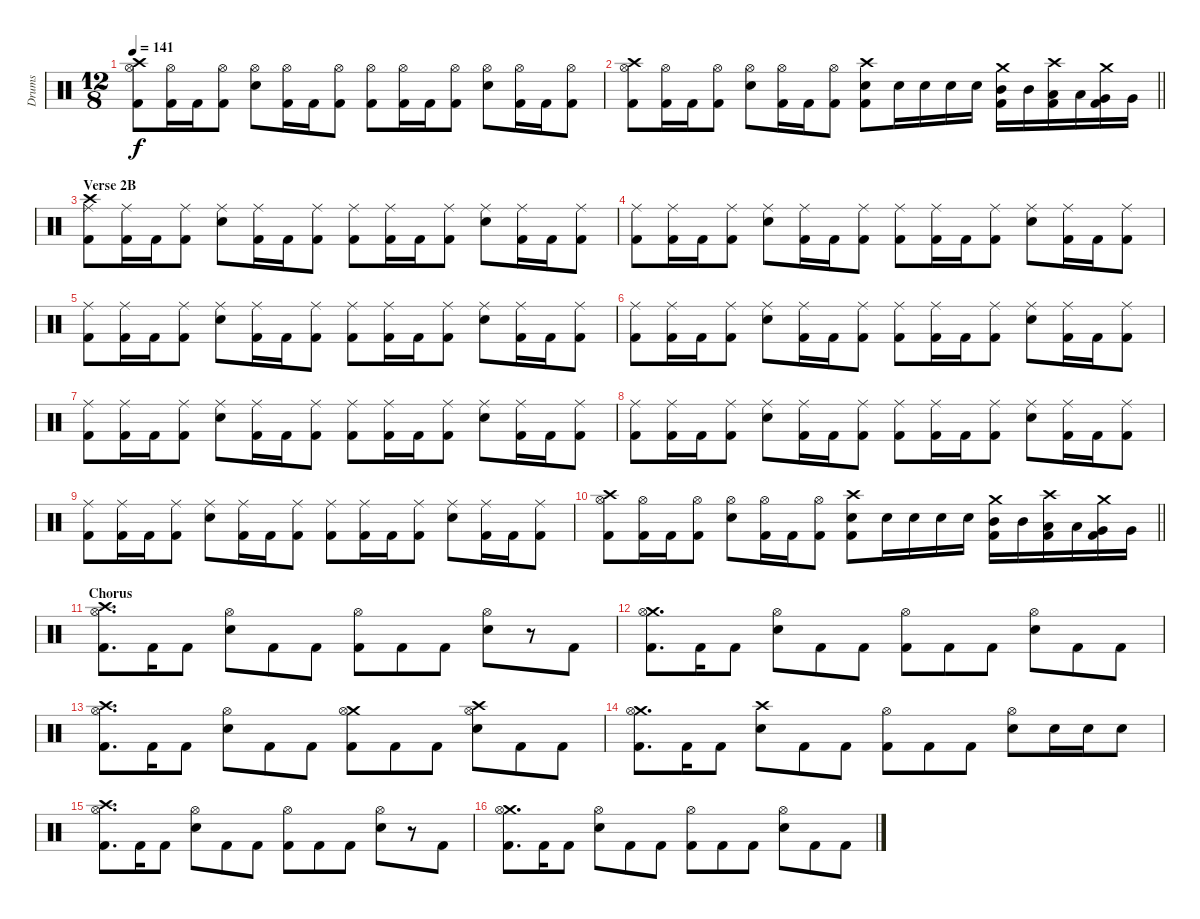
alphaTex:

\track ("Drums" "Drums") {instrument percussion}
\staff {score}
\articulation defaults
\ts (12 8)
\tempo 141
\clef neutral
\ks c
("Crash high (hit)" "Hi-Hat (open)" "Kick (hit) 2").8{dy f} ("Hi-Hat (open)" "Kick (hit) 2").16 "Kick (hit) 2".16 ("Hi-Hat (open)" "Kick (hit) 2").8 ("Hi-Hat (open)" "Snare (hit) 2").8 ("Hi-Hat (open)" "Kick (hit) 2").16 "Kick (hit) 2".16 ("Hi-Hat (open)" "Kick (hit) 2").8 ("Hi-Hat (open)" "Kick (hit) 2").8 ("Hi-Hat (open)" "Kick (hit) 2").16 "Kick (hit) 2".16 ("Hi-Hat (open)" "Kick (hit) 2").8 ("Hi-Hat (open)" "Snare (hit) 2").8 ("Hi-Hat (open)" "Kick (hit) 2").16 "Kick (hit) 2".16 ("Hi-Hat (open)" "Kick (hit) 2").8 |
\barLineRight lightlight
("Crash high (hit)" "Hi-Hat (open)" "Kick (hit) 2").8 ("Hi-Hat (open)" "Kick (hit) 2").16 "Kick (hit) 2".16 ("Hi-Hat (open)" "Kick (hit) 2").8 ("Hi-Hat (open)" "Snare (hit) 2").8 ("Hi-Hat (open)" "Kick (hit) 2").16 "Kick (hit) 2".16 ("Hi-Hat (open)" "Kick (hit) 2").8 ("Crash high (hit)" "Snare (hit) 2" "Kick (hit) 2").8 "Snare (hit) 2".16 "Snare (hit) 2".16 "Snare (hit) 2".16 "Snare (hit) 2".16 ("Crash medium (hit)" "Mid Tom (hit)" "Kick (hit) 2").16 "Mid Tom (hit)".16 ("Crash high (hit)" "Low Tom (hit)" "Kick (hit) 2").16 "Low Tom (hit)".16 ("Crash medium (hit)" "Very Low Tom (hit)" "Kick (hit) 2").16 "Very Low Tom (hit)".16 |
\section ("" "Verse 2B")
("Crash high (hit)" "Ride (middle)" "Kick (hit) 2").8 ("Ride (middle)" "Kick (hit) 2").16 "Kick (hit) 2".16 ("Ride (middle)" "Kick (hit) 2").8 ("Ride (middle)" "Snare (hit) 2").8 ("Ride (middle)" "Kick (hit) 2").16 "Kick (hit) 2".16 ("Ride (middle)" "Kick (hit) 2").8 ("Ride (middle)" "Kick (hit) 2").8 ("Ride (middle)" "Kick (hit) 2").16 "Kick (hit) 2".16 ("Ride (middle)" "Kick (hit) 2").8 ("Ride (middle)" "Snare (hit) 2").8 ("Ride (middle)" "Kick (hit) 2").16 "Kick (hit) 2".16 ("Ride (middle)" "Kick (hit) 2").8 |
("Ride (middle)" "Kick (hit) 2").8 ("Ride (middle)" "Kick (hit) 2").16 "Kick (hit) 2".16 ("Ride (middle)" "Kick (hit) 2").8 ("Ride (middle)" "Snare (hit) 2").8 ("Ride (middle)" "Kick (hit) 2").16 "Kick (hit) 2".16 ("Ride (middle)" "Kick (hit) 2").8 ("Ride (middle)" "Kick (hit) 2").8 ("Ride (middle)" "Kick (hit) 2").16 "Kick (hit) 2".16 ("Ride (middle)" "Kick (hit) 2").8 ("Ride (middle)" "Snare (hit) 2").8 ("Ride (middle)" "Kick (hit) 2").16 "Kick (hit) 2".16 ("Ride (middle)" "Kick (hit) 2").8 |
("Ride (middle)" "Kick (hit) 2").8 ("Ride (middle)" "Kick (hit) 2").16 "Kick (hit) 2".16 ("Ride (middle)" "Kick (hit) 2").8 ("Ride (middle)" "Snare (hit) 2").8 ("Ride (middle)" "Kick (hit) 2").16 "Kick (hit) 2".16 ("Ride (middle)" "Kick (hit) 2").8 ("Ride (middle)" "Kick (hit) 2").8 ("Ride (middle)" "Kick (hit) 2").16 "Kick (hit) 2".16 ("Ride (middle)" "Kick (hit) 2").8 ("Ride (middle)" "Snare (hit) 2").8 ("Ride (middle)" "Kick (hit) 2").16 "Kick (hit) 2".16 ("Ride (middle)" "Kick (hit) 2").8 |
("Ride (middle)" "Kick (hit) 2").8 ("Ride (middle)" "Kick (hit) 2").16 "Kick (hit) 2".16 ("Ride (middle)" "Kick (hit) 2").8 ("Ride (middle)" "Snare (hit) 2").8 ("Ride (middle)" "Kick (hit) 2").16 "Kick (hit) 2".16 ("Ride (middle)" "Kick (hit) 2").8 ("Ride (middle)" "Kick (hit) 2").8 ("Ride (middle)" "Kick (hit) 2").16 "Kick (hit) 2".16 ("Ride (middle)" "Kick (hit) 2").8 ("Ride (middle)" "Snare (hit) 2").8 ("Ride (middle)" "Kick (hit) 2").16 "Kick (hit) 2".16 ("Ride (middle)" "Kick (hit) 2").8 |
("Ride (middle)" "Kick (hit) 2").8 ("Ride (middle)" "Kick (hit) 2").16 "Kick (hit) 2".16 ("Ride (middle)" "Kick (hit) 2").8 ("Ride (middle)" "Snare (hit) 2").8 ("Ride (middle)" "Kick (hit) 2").16 "Kick (hit) 2".16 ("Ride (middle)" "Kick (hit) 2").8 ("Ride (middle)" "Kick (hit) 2").8 ("Ride (middle)" "Kick (hit) 2").16 "Kick (hit) 2".16 ("Ride (middle)" "Kick (hit) 2").8 ("Ride (middle)" "Snare (hit) 2").8 ("Ride (middle)" "Kick (hit) 2").16 "Kick (hit) 2".16 ("Ride (middle)" "Kick (hit) 2").8 |
("Ride (middle)" "Kick (hit) 2").8 ("Ride (middle)" "Kick (hit) 2").16 "Kick (hit) 2".16 ("Ride (middle)" "Kick (hit) 2").8 ("Ride (middle)" "Snare (hit) 2").8 ("Ride (middle)" "Kick (hit) 2").16 "Kick (hit) 2".16 ("Ride (middle)" "Kick (hit) 2").8 ("Ride (middle)" "Kick (hit) 2").8 ("Ride (middle)" "Kick (hit) 2").16 "Kick (hit) 2".16 ("Ride (middle)" "Kick (hit) 2").8 ("Ride (middle)" "Snare (hit) 2").8 ("Ride (middle)" "Kick (hit) 2").16 "Kick (hit) 2".16 ("Ride (middle)" "Kick (hit) 2").8 |
("Ride (middle)" "Kick (hit) 2").8 ("Ride (middle)" "Kick (hit) 2").16 "Kick (hit) 2".16 ("Ride (middle)" "Kick (hit) 2").8 ("Ride (middle)" "Snare (hit) 2").8 ("Ride (middle)" "Kick (hit) 2").16 "Kick (hit) 2".16 ("Ride (middle)" "Kick (hit) 2").8 ("Ride (middle)" "Kick (hit) 2").8 ("Ride (middle)" "Kick (hit) 2").16 "Kick (hit) 2".16 ("Ride (middle)" "Kick (hit) 2").8 ("Ride (middle)" "Snare (hit) 2").8 ("Ride (middle)" "Kick (hit) 2").16 "Kick (hit) 2".16 ("Ride (middle)" "Kick (hit) 2").8 |
\barLineRight lightlight
("Crash high (hit)" "Hi-Hat (open)" "Kick (hit) 2").8 ("Hi-Hat (open)" "Kick (hit) 2").16 "Kick (hit) 2".16 ("Hi-Hat (open)" "Kick (hit) 2").8 ("Hi-Hat (open)" "Snare (hit) 2").8 ("Hi-Hat (open)" "Kick (hit) 2").16 "Kick (hit) 2".16 ("Hi-Hat (open)" "Kick (hit) 2").8 ("Crash high (hit)" "Snare (hit) 2" "Kick (hit) 2").8 "Snare (hit) 2".16 "Snare (hit) 2".16 "Snare (hit) 2".16 "Snare (hit) 2".16 ("Crash medium (hit)" "Mid Tom (hit)" "Kick (hit) 2").16 "Mid Tom (hit)".16 ("Crash high (hit)" "Low Tom (hit)" "Kick (hit) 2").16 "Low Tom (hit)".16 ("Crash medium (hit)" "Very Low Tom (hit)" "Kick (hit) 2").16 "Very Low Tom (hit)".16 |
\section ("" "Chorus")
("Crash high (hit)" "Hi-Hat (open)" "Kick (hit) 2").8{d} "Kick (hit) 2".16 "Kick (hit) 2".8 ("Hi-Hat (open)" "Snare (hit) 2").8 "Kick (hit) 2".8 "Kick (hit) 2".8 ("Hi-Hat (open)" "Kick (hit) 2").8 "Kick (hit) 2".8 "Kick (hit) 2".8 ("Hi-Hat (open)" "Snare (hit) 2").8 r.8 "Kick (hit) 2".8 |
("Crash medium (hit)" "Hi-Hat (open)" "Kick (hit) 2").8{d} "Kick (hit) 2".16 "Kick (hit) 2".8 ("Hi-Hat (open)" "Snare (hit) 2").8 "Kick (hit) 2".8 "Kick (hit) 2".8 ("Hi-Hat (open)" "Kick (hit) 2").8 "Kick (hit) 2".8 "Kick (hit) 2".8 ("Hi-Hat (open)" "Snare (hit) 2").8 "Kick (hit) 2".8 "Kick (hit) 2".8 |
("Crash high (hit)" "Hi-Hat (open)" "Kick (hit) 2").8{d} "Kick (hit) 2".16 "Kick (hit) 2".8 ("Hi-Hat (open)" "Snare (hit) 2").8 "Kick (hit) 2".8 "Kick (hit) 2".8 ("Crash medium (hit)" "Hi-Hat (open)" "Kick (hit) 2").8 "Kick (hit) 2".8 "Kick (hit) 2".8 ("Crash high (hit)" "Hi-Hat (open)" "Snare (hit) 2").8 "Kick (hit) 2".8 "Kick (hit) 2".8 |
("Crash medium (hit)" "Hi-Hat (open)" "Kick (hit) 2").8{d} "Kick (hit) 2".16 "Kick (hit) 2".8 ("Crash high (hit)" "Snare (hit) 2").8 "Kick (hit) 2".8 "Kick (hit) 2".8 ("Hi-Hat (open)" "Kick (hit) 2").8 "Kick (hit) 2".8 "Kick (hit) 2".8 ("Hi-Hat (open)" "Snare (hit) 2").8 "Snare (hit) 2".16 "Snare (hit) 2".16 "Snare (hit) 2".8 |
("Crash high (hit)" "Hi-Hat (open)" "Kick (hit) 2").8{d} "Kick (hit) 2".16 "Kick (hit) 2".8 ("Hi-Hat (open)" "Snare (hit) 2").8 "Kick (hit) 2".8 "Kick (hit) 2".8 ("Hi-Hat (open)" "Kick (hit) 2").8 "Kick (hit) 2".8 "Kick (hit) 2".8 ("Hi-Hat (open)" "Snare (hit) 2").8 r.8 "Kick (hit) 2".8 |
("Crash medium (hit)" "Hi-Hat (open)" "Kick (hit) 2").8{d} "Kick (hit) 2".16 "Kick (hit) 2".8 ("Hi-Hat (open)" "Snare (hit) 2").8 "Kick (hit) 2".8 "Kick (hit) 2".8 ("Hi-Hat (open)" "Kick (hit) 2").8 "Kick (hit) 2".8 "Kick (hit) 2".8 ("Hi-Hat (open)" "Snare (hit) 2").8 "Kick (hit) 2".8 "Kick (hit) 2".8
